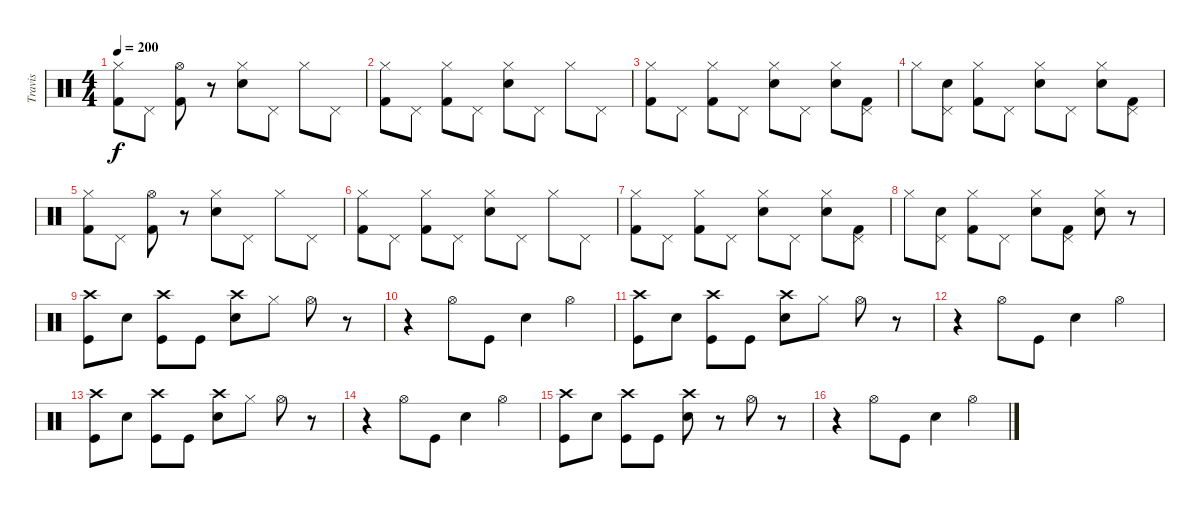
\track ("Travis" "Travis") {instrument percussion}
\staff {score}
\articulation defaults
\ts (4 4)
\tempo 200
\clef neutral
\ks c
("Kick (hit) 2" "Hi-Hat (closed)").8{dy f} "Pedal Hi-Hat (hit)".8 ("Kick (hit) 2" "Hi-Hat (open)").8 r.8 ("Snare (hit) 2" "Hi-Hat (closed)").8 "Pedal Hi-Hat (hit)".8 "Hi-Hat (closed)".8 "Pedal Hi-Hat (hit)".8 |
("Kick (hit) 2" "Hi-Hat (closed)").8 "Pedal Hi-Hat (hit)".8 ("Kick (hit) 2" "Hi-Hat (closed)").8 "Pedal Hi-Hat (hit)".8 ("Snare (hit) 2" "Hi-Hat (closed)").8 "Pedal Hi-Hat (hit)".8 "Hi-Hat (closed)".8 "Pedal Hi-Hat (hit)".8 |
("Kick (hit) 2" "Hi-Hat (closed)").8 "Pedal Hi-Hat (hit)".8 ("Kick (hit) 2" "Hi-Hat (closed)").8 "Pedal Hi-Hat (hit)".8 ("Snare (hit) 2" "Hi-Hat (closed)").8 "Pedal Hi-Hat (hit)".8 ("Snare (hit) 2" "Hi-Hat (closed)").8 ("Kick (hit) 2" "Pedal Hi-Hat (hit)").8 |
"Hi-Hat (closed)".8 ("Snare (hit) 2" "Pedal Hi-Hat (hit)").8 ("Kick (hit) 2" "Hi-Hat (closed)").8 "Pedal Hi-Hat (hit)".8 ("Snare (hit) 2" "Hi-Hat (closed)").8 "Pedal Hi-Hat (hit)".8 ("Snare (hit) 2" "Hi-Hat (closed)").8 ("Kick (hit) 2" "Pedal Hi-Hat (hit)").8 |
("Kick (hit) 2" "Hi-Hat (closed)").8 "Pedal Hi-Hat (hit)".8 ("Kick (hit) 2" "Hi-Hat (open)").8 r.8 ("Snare (hit) 2" "Hi-Hat (closed)").8 "Pedal Hi-Hat (hit)".8 "Hi-Hat (closed)".8 "Pedal Hi-Hat (hit)".8 |
("Kick (hit) 2" "Hi-Hat (closed)").8 "Pedal Hi-Hat (hit)".8 ("Kick (hit) 2" "Hi-Hat (closed)").8 "Pedal Hi-Hat (hit)".8 ("Snare (hit) 2" "Hi-Hat (closed)").8 "Pedal Hi-Hat (hit)".8 "Hi-Hat (closed)".8 "Pedal Hi-Hat (hit)".8 |
("Kick (hit) 2" "Hi-Hat (closed)").8 "Pedal Hi-Hat (hit)".8 ("Kick (hit) 2" "Hi-Hat (closed)").8 "Pedal Hi-Hat (hit)".8 ("Snare (hit) 2" "Hi-Hat (closed)").8 "Pedal Hi-Hat (hit)".8 ("Snare (hit) 2" "Hi-Hat (closed)").8 ("Kick (hit) 2" "Pedal Hi-Hat (hit)").8 |
"Hi-Hat (closed)".8 ("Snare (hit) 2" "Pedal Hi-Hat (hit)").8 ("Kick (hit) 2" "Hi-Hat (closed)").8 "Pedal Hi-Hat (hit)".8 ("Snare (hit) 2" "Hi-Hat (closed)").8 ("Kick (hit) 2" "Pedal Hi-Hat (hit)").8 ("Snare (hit) 2" "Hi-Hat (closed)").8 r.8 |
("Kick (hit)" "Crash high (hit)").8 "Snare (hit) 2".8 ("Kick (hit)" "Crash high (hit)").8 "Kick (hit)".8 ("Snare (hit) 2" "Crash high (hit)").8 "Hi-Hat (closed)".8 "Hi-Hat (open)".8 r.8 |
r.4 "Hi-Hat (open)".8 "Kick (hit)".8 "Snare (hit) 2".4 "Hi-Hat (open)".4 |
("Kick (hit)" "Crash high (hit)").8 "Snare (hit) 2".8 ("Kick (hit)" "Crash high (hit)").8 "Kick (hit)".8 ("Snare (hit) 2" "Crash high (hit)").8 "Hi-Hat (closed)".8 "Hi-Hat (open)".8 r.8 |
r.4 "Hi-Hat (open)".8 "Kick (hit)".8 "Snare (hit) 2".4 "Hi-Hat (open)".4 |
("Kick (hit)" "Crash high (hit)").8 "Snare (hit) 2".8 ("Kick (hit)" "Crash high (hit)").8 "Kick (hit)".8 ("Snare (hit) 2" "Crash high (hit)").8 "Hi-Hat (closed)".8 "Hi-Hat (open)".8 r.8 |
r.4 "Hi-Hat (open)".8 "Kick (hit)".8 "Snare (hit) 2".4 "Hi-Hat (open)".4 |
("Kick (hit)" "Crash high (hit)").8 "Snare (hit) 2".8 ("Kick (hit)" "Crash high (hit)").8 "Kick (hit)".8 ("Snare (hit) 2" "Crash high (hit)").8 r.8 "Hi-Hat (open)".8 r.8 |
r.4 "Hi-Hat (open)".8 "Kick (hit)".8 "Snare (hit) 2".4 "Hi-Hat (open)".4
